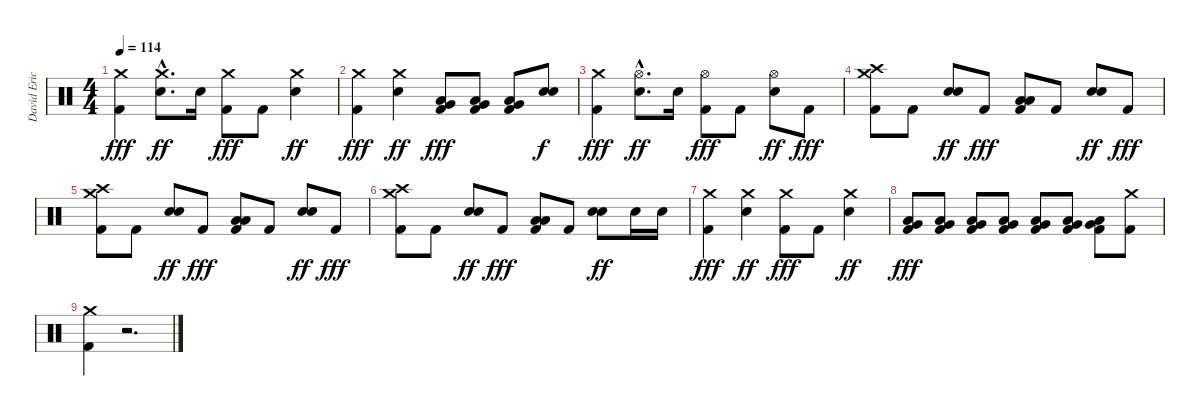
\track ("David Eric Grohl" "David Eric") {instrument percussion}
\staff {score}
\articulation defaults
\ts (4 4)
\tempo 114
\clef neutral
\ks c
("Crash medium (hit)" "Kick (hit) 2").4{dy fff} ("Crash medium (hit)"{hac} "Electric Snare (hit)"{hac}).8{d dy ff} "Electric Snare (hit)".16 ("Crash medium (hit)" "Kick (hit) 2").8{dy fff} "Kick (hit) 2".8 ("Crash medium (hit)" "Electric Snare (hit)").4{dy ff} |
("Crash medium (hit)" "Kick (hit) 2").4{dy fff} ("Crash medium (hit)" "Electric Snare (hit)").4{dy ff} ("Low Tom (hit)" "Very Low Tom (hit)" "Kick (hit) 2").8{dy fff} ("Low Tom (hit)" "Very Low Tom (hit)" "Kick (hit) 2").8 ("Low Tom (hit)" "Very Low Tom (hit)" "Kick (hit) 2").8 ("Electric Snare (hit)" "Electric Snare (hit)").8{dy f} |
("Crash medium (hit)" "Kick (hit) 2").4{dy fff} ("Hi-Hat (open)"{hac} "Electric Snare (hit)"{hac}).8{d dy ff} "Electric Snare (hit)".16 ("Hi-Hat (open)" "Kick (hit) 2").8{dy fff} "Kick (hit) 2".8 ("Hi-Hat (open)" "Electric Snare (hit)").8{dy ff} "Kick (hit) 2".8{dy fff} |
("Crash high (hit)" "Crash medium (hit)" "Kick (hit) 2").8 "Kick (hit) 2".8 ("Electric Snare (hit)" "Electric Snare (hit)").8{dy ff} "Kick (hit) 2".8{dy fff} ("Low Tom (hit)" "Low Tom (hit)" "Kick (hit) 2").8 "Kick (hit) 2".8 ("Electric Snare (hit)" "Electric Snare (hit)").8{dy ff} "Kick (hit) 2".8{dy fff} |
("Crash high (hit)" "Crash medium (hit)" "Kick (hit) 2").8 "Kick (hit) 2".8 ("Electric Snare (hit)" "Electric Snare (hit)").8{dy ff} "Kick (hit) 2".8{dy fff} ("Low Tom (hit)" "Low Tom (hit)" "Kick (hit) 2").8 "Kick (hit) 2".8 ("Electric Snare (hit)" "Electric Snare (hit)").8{dy ff} "Kick (hit) 2".8{dy fff} |
("Crash high (hit)" "Crash medium (hit)" "Kick (hit) 2").8 "Kick (hit) 2".8 ("Electric Snare (hit)" "Electric Snare (hit)").8{dy ff} "Kick (hit) 2".8{dy fff} ("Low Tom (hit)" "Low Tom (hit)" "Kick (hit) 2").8 "Kick (hit) 2".8 ("Electric Snare (hit)" "Electric Snare (hit)").8{dy ff} "Electric Snare (hit)".16 "Electric Snare (hit)".16 |
("Crash medium (hit)" "Kick (hit) 2").4{dy fff} ("Crash medium (hit)" "Electric Snare (hit)").4{dy ff} ("Crash medium (hit)" "Kick (hit) 2").8{dy fff} "Kick (hit) 2".8 ("Crash medium (hit)" "Electric Snare (hit)").4{dy ff} |
("Low Tom (hit)" "Very Low Tom (hit)" "Kick (hit) 2").8{dy fff} ("Low Tom (hit)" "Very Low Tom (hit)" "Kick (hit) 2").8 ("Low Tom (hit)" "Very Low Tom (hit)" "Kick (hit) 2").8 ("Low Tom (hit)" "Very Low Tom (hit)" "Kick (hit) 2").8 ("Low Tom (hit)" "Very Low Tom (hit)" "Kick (hit) 2").8 ("Low Tom (hit)" "Very Low Tom (hit)" "Kick (hit) 2").8 ("Low Tom (hit)" "Very Low Tom (hit)" "Kick (hit) 2").8 ("Crash medium (hit)" "Kick (hit) 2").8 |
("Crash medium (hit)" "Kick (hit) 2").4 r.2{d}
